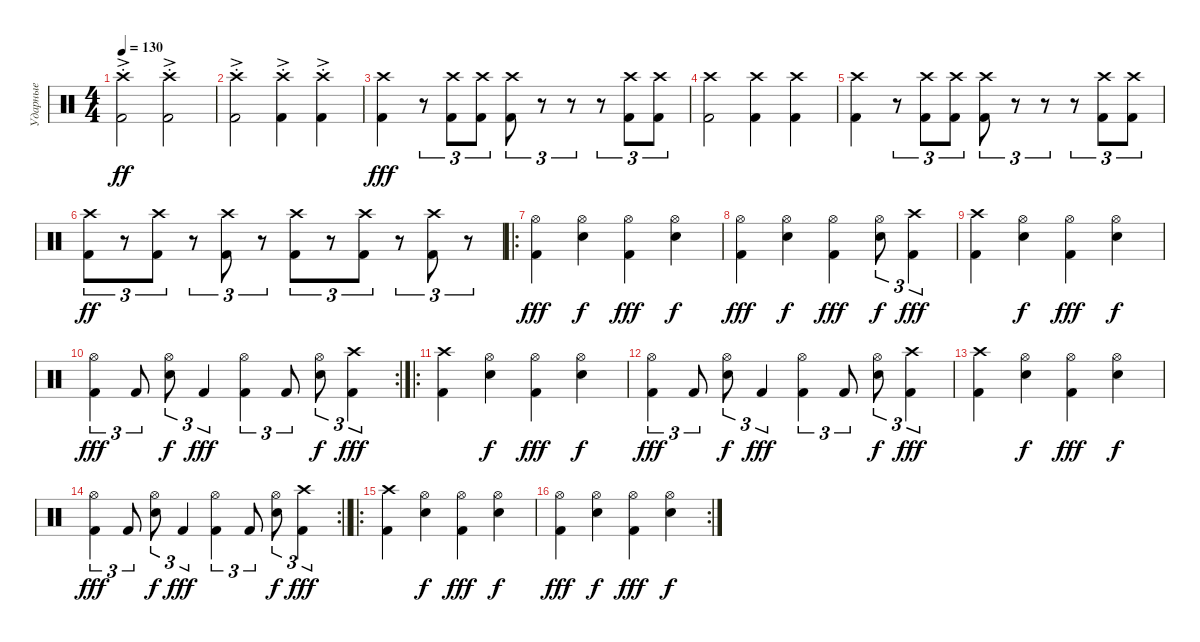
\track ("Ударные" "Ударные") {instrument percussion}
\staff {score}
\articulation defaults
\ts (4 4)
\tempo 130
\clef neutral
\ks c
("Kick (hit) 2"{st} "Crash high (hit)"{ac st}).2{dy ff} ("Kick (hit) 2"{st} "Crash high (hit)"{ac st}).2 |
("Kick (hit) 2"{st} "Crash high (hit)"{ac st}).2 ("Kick (hit) 2"{st} "Crash high (hit)"{ac st}).4 ("Kick (hit) 2"{st} "Crash high (hit)"{ac st}).4 |
("Kick (hit) 2" "Crash high (hit)").4{dy fff} r.8{tu (3 2)} ("Kick (hit) 2" "Crash high (hit)").8{tu (3 2)} ("Kick (hit) 2" "Crash high (hit)").8{tu (3 2)} ("Kick (hit) 2" "Crash high (hit)").8{tu (3 2)} r.8{tu (3 2)} r.8{tu (3 2)} r.8{tu (3 2)} ("Kick (hit) 2" "Crash high (hit)").8{tu (3 2)} ("Kick (hit) 2" "Crash high (hit)").8{tu (3 2)} |
("Kick (hit) 2" "Crash high (hit)").2 ("Kick (hit) 2" "Crash high (hit)").4 ("Kick (hit) 2" "Crash high (hit)").4 |
("Kick (hit) 2" "Crash high (hit)").4 r.8{tu (3 2)} ("Kick (hit) 2" "Crash high (hit)").8{tu (3 2)} ("Kick (hit) 2" "Crash high (hit)").8{tu (3 2)} ("Kick (hit) 2" "Crash high (hit)").8{tu (3 2)} r.8{tu (3 2)} r.8{tu (3 2)} r.8{tu (3 2)} ("Kick (hit) 2" "Crash high (hit)").8{tu (3 2)} ("Kick (hit) 2" "Crash high (hit)").8{tu (3 2)} |
("Kick (hit) 2" "Crash high (hit)").8{tu (3 2) dy ff} r.8{tu (3 2)} ("Kick (hit) 2" "Crash high (hit)").8{tu (3 2)} r.8{tu (3 2)} ("Kick (hit) 2" "Crash high (hit)").8{tu (3 2)} r.8{tu (3 2)} ("Kick (hit) 2" "Crash high (hit)").8{tu (3 2)} r.8{tu (3 2)} ("Kick (hit) 2" "Crash high (hit)").8{tu (3 2)} r.8{tu (3 2)} ("Kick (hit) 2" "Crash high (hit)").8{tu (3 2)} r.8{tu (3 2)} |
\ro
("Kick (hit) 2" "Hi-Hat (open)").4{dy fff} ("Snare (hit) 2" "Hi-Hat (open)").4{dy f} ("Kick (hit) 2" "Hi-Hat (open)").4{dy fff} ("Snare (hit) 2" "Hi-Hat (open)").4{dy f} |
("Kick (hit) 2" "Hi-Hat (open)").4{dy fff} ("Snare (hit) 2" "Hi-Hat (open)").4{dy f} ("Kick (hit) 2" "Hi-Hat (open)").4{dy fff} ("Snare (hit) 2" "Hi-Hat (open)").8{tu (3 2) dy f} ("Kick (hit) 2" "Crash high (hit)").4{tu (3 2) dy fff} |
("Kick (hit) 2" "Crash high (hit)").4 ("Snare (hit) 2" "Hi-Hat (open)").4{dy f} ("Kick (hit) 2" "Hi-Hat (open)").4{dy fff} ("Snare (hit) 2" "Hi-Hat (open)").4{dy f} |
\rc 2
("Kick (hit) 2" "Hi-Hat (open)").4{tu (3 2) dy fff} "Kick (hit) 2".8{tu (3 2)} ("Snare (hit) 2" "Hi-Hat (open)").8{tu (3 2) dy f} "Kick (hit) 2".4{tu (3 2) dy fff} ("Kick (hit) 2" "Hi-Hat (open)").4{tu (3 2)} "Kick (hit) 2".8{tu (3 2)} ("Snare (hit) 2" "Hi-Hat (open)").8{tu (3 2) dy f} ("Kick (hit) 2" "Crash high (hit)").4{tu (3 2) dy fff} |
\ro
("Kick (hit) 2" "Crash high (hit)").4 ("Snare (hit) 2" "Hi-Hat (open)").4{dy f} ("Kick (hit) 2" "Hi-Hat (open)").4{dy fff} ("Snare (hit) 2" "Hi-Hat (open)").4{dy f} |
("Kick (hit) 2" "Hi-Hat (open)").4{tu (3 2) dy fff} "Kick (hit) 2".8{tu (3 2)} ("Snare (hit) 2" "Hi-Hat (open)").8{tu (3 2) dy f} "Kick (hit) 2".4{tu (3 2) dy fff} ("Kick (hit) 2" "Hi-Hat (open)").4{tu (3 2)} "Kick (hit) 2".8{tu (3 2)} ("Snare (hit) 2" "Hi-Hat (open)").8{tu (3 2) dy f} ("Kick (hit) 2" "Crash high (hit)").4{tu (3 2) dy fff} |
("Kick (hit) 2" "Crash high (hit)").4 ("Snare (hit) 2" "Hi-Hat (open)").4{dy f} ("Kick (hit) 2" "Hi-Hat (open)").4{dy fff} ("Snare (hit) 2" "Hi-Hat (open)").4{dy f} |
\rc 2
\barLineRight lightlight
("Kick (hit) 2" "Hi-Hat (open)").4{tu (3 2) dy fff} "Kick (hit) 2".8{tu (3 2)} ("Snare (hit) 2" "Hi-Hat (open)").8{tu (3 2) dy f} "Kick (hit) 2".4{tu (3 2) dy fff} ("Kick (hit) 2" "Hi-Hat (open)").4{tu (3 2)} "Kick (hit) 2".8{tu (3 2)} ("Snare (hit) 2" "Hi-Hat (open)").8{tu (3 2) dy f} ("Kick (hit) 2" "Crash high (hit)").4{tu (3 2) dy fff} |
\ro
("Kick (hit) 2" "Crash high (hit)").4 ("Snare (hit) 2" "Hi-Hat (open)").4{dy f} ("Kick (hit) 2" "Hi-Hat (open)").4{dy fff} ("Snare (hit) 2" "Hi-Hat (open)").4{dy f} |
\rc 2
("Kick (hit) 2" "Hi-Hat (open)").4{dy fff} ("Snare (hit) 2" "Hi-Hat (open)").4{dy f} ("Kick (hit) 2" "Hi-Hat (open)").4{dy fff} ("Snare (hit) 2" "Hi-Hat (open)").4{dy f}
